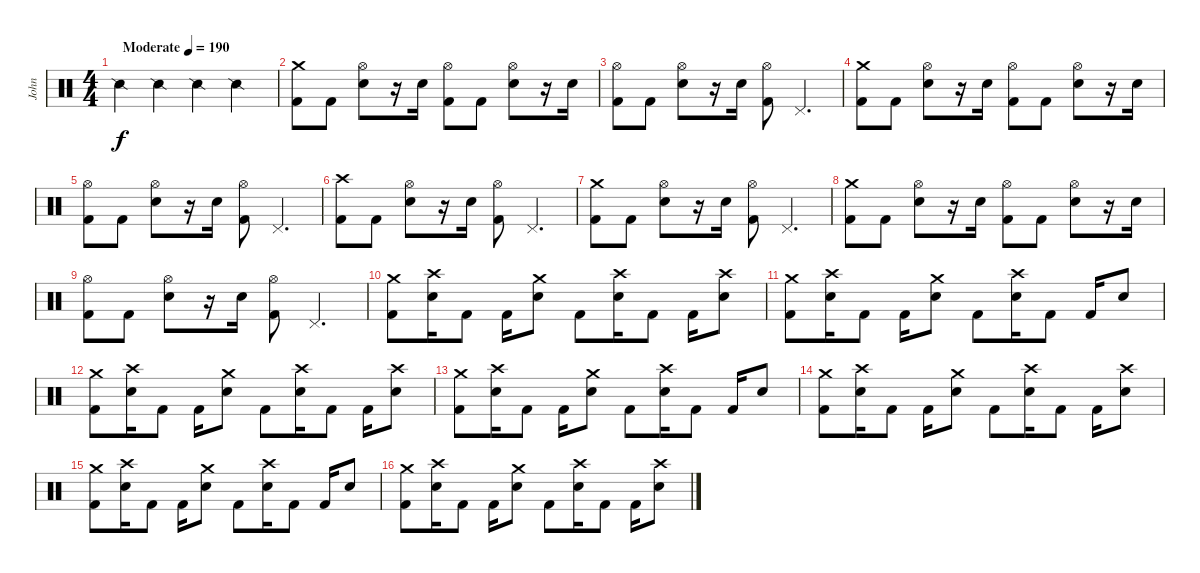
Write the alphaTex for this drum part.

\track ("John" "John") {instrument percussion}
\staff {score}
\articulation defaults
\ts (4 4)
\tempo (190 "Moderate")
\clef neutral
\ks c "Snare (side stick) 2".4{dy f} "Snare (side stick) 2".4 "Snare (side stick) 2".4 "Snare (side stick) 2".4
|
("Kick (hit) 2" "Crash medium (hit)").8 "Kick (hit) 2".8 ("Snare (hit) 2" "Hi-Hat (open)").8 r.16 "Snare (hit) 2".16 ("Kick (hit) 2" "Hi-Hat (open)").8 "Kick (hit) 2".8 ("Snare (hit) 2" "Hi-Hat (open)").8 r.16 "Snare (hit) 2".16 |
("Kick (hit) 2" "Hi-Hat (open)").8 "Kick (hit) 2".8 ("Snare (hit) 2" "Hi-Hat (open)").8 r.16 "Snare (hit) 2".16 ("Kick (hit) 2" "Hi-Hat (open)").8 "Pedal Hi-Hat (hit)".4{d} |
("Kick (hit) 2" "Crash medium (hit)").8 "Kick (hit) 2".8 ("Snare (hit) 2" "Hi-Hat (open)").8 r.16 "Snare (hit) 2".16 ("Kick (hit) 2" "Hi-Hat (open)").8 "Kick (hit) 2".8 ("Snare (hit) 2" "Hi-Hat (open)").8 r.16 "Snare (hit) 2".16 |
("Kick (hit) 2" "Hi-Hat (open)").8 "Kick (hit) 2".8 ("Snare (hit) 2" "Hi-Hat (open)").8 r.16 "Snare (hit) 2".16 ("Kick (hit) 2" "Hi-Hat (open)").8 "Pedal Hi-Hat (hit)".4{d} |
("Kick (hit) 2" "Crash high (hit)").8 "Kick (hit) 2".8 ("Snare (hit) 2" "Hi-Hat (open)").8 r.16 "Snare (hit) 2".16 ("Kick (hit) 2" "Hi-Hat (open)").8 "Pedal Hi-Hat (hit)".4{d} |
("Kick (hit) 2" "Crash medium (hit)").8 "Kick (hit) 2".8 ("Snare (hit) 2" "Hi-Hat (open)").8 r.16 "Snare (hit) 2".16 ("Kick (hit) 2" "Hi-Hat (open)").8 "Pedal Hi-Hat (hit)".4{d} |
("Kick (hit) 2" "Crash medium (hit)").8 "Kick (hit) 2".8 ("Snare (hit) 2" "Hi-Hat (open)").8 r.16 "Snare (hit) 2".16 ("Kick (hit) 2" "Hi-Hat (open)").8 "Kick (hit) 2".8 ("Snare (hit) 2" "Hi-Hat (open)").8 r.16 "Snare (hit) 2".16 |
("Kick (hit) 2" "Hi-Hat (open)").8 "Kick (hit) 2".8 ("Snare (hit) 2" "Hi-Hat (open)").8 r.16 "Snare (hit) 2".16 ("Kick (hit) 2" "Hi-Hat (open)").8 "Pedal Hi-Hat (hit)".4{d} |
("Kick (hit) 2" "Crash medium (hit)").8 ("Snare (hit) 2" "Crash high (hit)").16 "Kick (hit) 2".8 "Kick (hit) 2".16 ("Snare (hit) 2" "Crash medium (hit)").8 "Kick (hit) 2".8 ("Snare (hit) 2" "Crash high (hit)").16 "Kick (hit) 2".8 "Kick (hit) 2".16 ("Snare (hit) 2" "Crash high (hit)").8 |
("Kick (hit) 2" "Crash medium (hit)").8 ("Snare (hit) 2" "Crash high (hit)").16 "Kick (hit) 2".8 "Kick (hit) 2".16 ("Snare (hit) 2" "Crash medium (hit)").8 "Kick (hit) 2".8 ("Snare (hit) 2" "Crash high (hit)").16 "Kick (hit) 2".8 "Kick (hit) 2".16 "Snare (hit) 2".8 |
("Kick (hit) 2" "Crash medium (hit)").8 ("Snare (hit) 2" "Crash high (hit)").16 "Kick (hit) 2".8 "Kick (hit) 2".16 ("Snare (hit) 2" "Crash medium (hit)").8 "Kick (hit) 2".8 ("Snare (hit) 2" "Crash high (hit)").16 "Kick (hit) 2".8 "Kick (hit) 2".16 ("Snare (hit) 2" "Crash high (hit)").8 |
("Kick (hit) 2" "Crash medium (hit)").8 ("Snare (hit) 2" "Crash high (hit)").16 "Kick (hit) 2".8 "Kick (hit) 2".16 ("Snare (hit) 2" "Crash medium (hit)").8 "Kick (hit) 2".8 ("Snare (hit) 2" "Crash high (hit)").16 "Kick (hit) 2".8 "Kick (hit) 2".16 "Snare (hit) 2".8 |
("Kick (hit) 2" "Crash medium (hit)").8 ("Snare (hit) 2" "Crash high (hit)").16 "Kick (hit) 2".8 "Kick (hit) 2".16 ("Snare (hit) 2" "Crash medium (hit)").8 "Kick (hit) 2".8 ("Snare (hit) 2" "Crash high (hit)").16 "Kick (hit) 2".8 "Kick (hit) 2".16 ("Snare (hit) 2" "Crash high (hit)").8 |
("Kick (hit) 2" "Crash medium (hit)").8 ("Snare (hit) 2" "Crash high (hit)").16 "Kick (hit) 2".8 "Kick (hit) 2".16 ("Snare (hit) 2" "Crash medium (hit)").8 "Kick (hit) 2".8 ("Snare (hit) 2" "Crash high (hit)").16 "Kick (hit) 2".8 "Kick (hit) 2".16 "Snare (hit) 2".8 |
("Kick (hit) 2" "Crash medium (hit)").8 ("Snare (hit) 2" "Crash high (hit)").16 "Kick (hit) 2".8 "Kick (hit) 2".16 ("Snare (hit) 2" "Crash medium (hit)").8 "Kick (hit) 2".8 ("Snare (hit) 2" "Crash high (hit)").16 "Kick (hit) 2".8 "Kick (hit) 2".16 ("Snare (hit) 2" "Crash high (hit)").8
